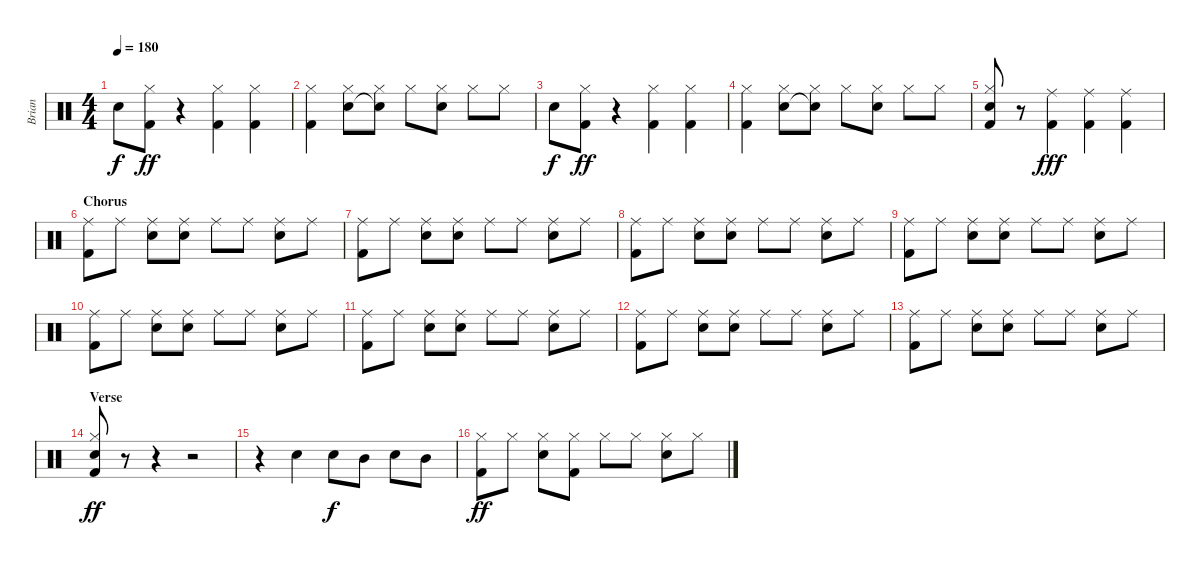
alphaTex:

\track ("Brian" "Brian") {instrument percussion}
\staff {score}
\articulation defaults
\ts (4 4)
\tempo 180
\clef neutral
\ks c "Snare (hit) 2".8{dy f}
("Hi-Hat (closed)" "Kick (hit) 2").8{dy ff} r.4 ("Hi-Hat (closed)" "Kick (hit) 2").4 ("Hi-Hat (closed)" "Kick (hit) 2").4 |
("Hi-Hat (closed)" "Kick (hit) 2").4 ("Hi-Hat (closed)" "Snare (hit) 2").8 ("Hi-Hat (closed)" "Electric Snare (hit)"{t}).8 "Hi-Hat (closed)".8 ("Hi-Hat (closed)" "Snare (hit) 2").8 "Hi-Hat (closed)".8 "Hi-Hat (closed)".8 |
"Snare (hit) 2".8{dy f} ("Hi-Hat (closed)" "Kick (hit) 2").8{dy ff} r.4 ("Hi-Hat (closed)" "Kick (hit) 2").4 ("Hi-Hat (closed)" "Kick (hit) 2").4 |
("Hi-Hat (closed)" "Kick (hit) 2").4 ("Hi-Hat (closed)" "Snare (hit) 2").8 ("Hi-Hat (closed)" "Electric Snare (hit)"{t}).8 "Hi-Hat (closed)".8 ("Hi-Hat (closed)" "Snare (hit) 2").8 "Hi-Hat (closed)".8 "Hi-Hat (closed)".8 |
("Hi-Hat (closed)" "Snare (hit) 2" "Kick (hit) 2").8 r.8 ("Ride (middle)" "Kick (hit) 2").4{dy fff} ("Ride (middle)" "Kick (hit) 2").4 ("Ride (middle)" "Kick (hit) 2").4 |
\section ("" "Chorus")
("Ride (middle)" "Kick (hit) 2").8 "Ride (middle)".8 ("Ride (middle)" "Snare (hit) 2").8 ("Ride (middle)" "Snare (hit) 2").8 "Ride (middle)".8 "Ride (middle)".8 ("Ride (middle)" "Snare (hit) 2").8 "Ride (middle)".8 |
("Ride (middle)" "Kick (hit) 2").8 "Ride (middle)".8 ("Ride (middle)" "Snare (hit) 2").8 ("Ride (middle)" "Snare (hit) 2").8 "Ride (middle)".8 "Ride (middle)".8 ("Ride (middle)" "Snare (hit) 2").8 "Ride (middle)".8 |
("Ride (middle)" "Kick (hit) 2").8 "Ride (middle)".8 ("Ride (middle)" "Snare (hit) 2").8 ("Ride (middle)" "Snare (hit) 2").8 "Ride (middle)".8 "Ride (middle)".8 ("Ride (middle)" "Snare (hit) 2").8 "Ride (middle)".8 |
("Ride (middle)" "Kick (hit) 2").8 "Ride (middle)".8 ("Ride (middle)" "Snare (hit) 2").8 ("Ride (middle)" "Snare (hit) 2").8 "Ride (middle)".8 "Ride (middle)".8 ("Ride (middle)" "Snare (hit) 2").8 "Ride (middle)".8 |
("Ride (middle)" "Kick (hit) 2").8 "Ride (middle)".8 ("Ride (middle)" "Snare (hit) 2").8 ("Ride (middle)" "Snare (hit) 2").8 "Ride (middle)".8 "Ride (middle)".8 ("Ride (middle)" "Snare (hit) 2").8 "Ride (middle)".8 |
("Ride (middle)" "Kick (hit) 2").8 "Ride (middle)".8 ("Ride (middle)" "Snare (hit) 2").8 ("Ride (middle)" "Snare (hit) 2").8 "Ride (middle)".8 "Ride (middle)".8 ("Ride (middle)" "Snare (hit) 2").8 "Ride (middle)".8 |
("Ride (middle)" "Kick (hit) 2").8 "Ride (middle)".8 ("Ride (middle)" "Snare (hit) 2").8 ("Ride (middle)" "Snare (hit) 2").8 "Ride (middle)".8 "Ride (middle)".8 ("Ride (middle)" "Snare (hit) 2").8 "Ride (middle)".8 |
("Ride (middle)" "Kick (hit) 2").8 "Ride (middle)".8 ("Ride (middle)" "Snare (hit) 2").8 ("Ride (middle)" "Snare (hit) 2").8 "Ride (middle)".8 "Ride (middle)".8 ("Ride (middle)" "Snare (hit) 2").8 "Ride (middle)".8 |
\section ("" "Verse")
("Hi-Hat (closed)" "Snare (hit) 2" "Kick (hit) 2").8{dy ff} r.8 r.4 r.2 |
r.4 "Snare (hit) 2".4 "Snare (hit) 2".8{dy f} "Mid Tom (hit)".8 "Snare (hit) 2".8 "Mid Tom (hit)".8 |
("Hi-Hat (closed)" "Kick (hit) 2").8{dy ff} "Hi-Hat (closed)".8 ("Hi-Hat (closed)" "Snare (hit) 2").8 ("Hi-Hat (closed)" "Kick (hit) 2").8 "Hi-Hat (closed)".8 "Hi-Hat (closed)".8 ("Hi-Hat (closed)" "Snare (hit) 2").8 "Hi-Hat (closed)".8
